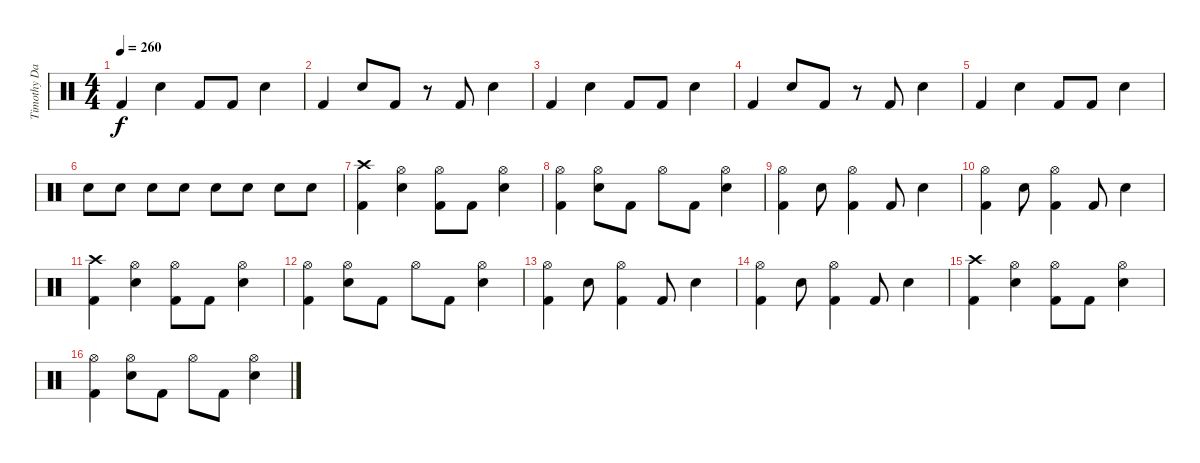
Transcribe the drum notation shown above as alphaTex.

\track ("Timothy David Bollinger" "Timothy Da") {instrument percussion}
\staff {score}
\articulation defaults
\ts (4 4)
\tempo 260
\clef neutral
\ks c "Kick (hit) 2".4{dy f} "Electric Snare (hit)".4 "Kick (hit) 2".8 "Kick (hit) 2".8 "Electric Snare (hit)".4
|
"Kick (hit) 2".4 "Electric Snare (hit)".8 "Kick (hit) 2".8 r.8 "Kick (hit) 2".8 "Electric Snare (hit)".4 |
"Kick (hit) 2".4 "Electric Snare (hit)".4 "Kick (hit) 2".8 "Kick (hit) 2".8 "Electric Snare (hit)".4 |
"Kick (hit) 2".4 "Electric Snare (hit)".8 "Kick (hit) 2".8 r.8 "Kick (hit) 2".8 "Electric Snare (hit)".4 |
"Kick (hit) 2".4 "Electric Snare (hit)".4 "Kick (hit) 2".8 "Kick (hit) 2".8 "Electric Snare (hit)".4 |
"Electric Snare (hit)".8 "Electric Snare (hit)".8 "Electric Snare (hit)".8 "Electric Snare (hit)".8 "Electric Snare (hit)".8 "Electric Snare (hit)".8 "Electric Snare (hit)".8 "Electric Snare (hit)".8 |
("Crash high (hit)" "Kick (hit) 2").4 ("Hi-Hat (open)" "Electric Snare (hit)").4 ("Hi-Hat (open)" "Kick (hit) 2").8 "Kick (hit) 2".8 ("Hi-Hat (open)" "Electric Snare (hit)").4 |
("Hi-Hat (open)" "Kick (hit) 2").4 ("Hi-Hat (open)" "Electric Snare (hit)").8 "Kick (hit) 2".8 "Hi-Hat (open)".8 "Kick (hit) 2".8 ("Hi-Hat (open)" "Electric Snare (hit)").4 |
("Hi-Hat (open)" "Kick (hit) 2").4 "Electric Snare (hit)".8 ("Hi-Hat (open)" "Kick (hit) 2").4 "Kick (hit) 2".8 "Electric Snare (hit)".4 |
("Hi-Hat (open)" "Kick (hit) 2").4 "Electric Snare (hit)".8 ("Hi-Hat (open)" "Kick (hit) 2").4 "Kick (hit) 2".8 "Electric Snare (hit)".4 |
("Crash high (hit)" "Kick (hit) 2").4 ("Hi-Hat (open)" "Electric Snare (hit)").4 ("Hi-Hat (open)" "Kick (hit) 2").8 "Kick (hit) 2".8 ("Hi-Hat (open)" "Electric Snare (hit)").4 |
("Hi-Hat (open)" "Kick (hit) 2").4 ("Hi-Hat (open)" "Electric Snare (hit)").8 "Kick (hit) 2".8 "Hi-Hat (open)".8 "Kick (hit) 2".8 ("Hi-Hat (open)" "Electric Snare (hit)").4 |
("Hi-Hat (open)" "Kick (hit) 2").4 "Electric Snare (hit)".8 ("Hi-Hat (open)" "Kick (hit) 2").4 "Kick (hit) 2".8 "Electric Snare (hit)".4 |
("Hi-Hat (open)" "Kick (hit) 2").4 "Electric Snare (hit)".8 ("Hi-Hat (open)" "Kick (hit) 2").4 "Kick (hit) 2".8 "Electric Snare (hit)".4 |
("Crash high (hit)" "Kick (hit) 2").4 ("Hi-Hat (open)" "Electric Snare (hit)").4 ("Hi-Hat (open)" "Kick (hit) 2").8 "Kick (hit) 2".8 ("Hi-Hat (open)" "Electric Snare (hit)").4 |
("Hi-Hat (open)" "Kick (hit) 2").4 ("Hi-Hat (open)" "Electric Snare (hit)").8 "Kick (hit) 2".8 "Hi-Hat (open)".8 "Kick (hit) 2".8 ("Hi-Hat (open)" "Electric Snare (hit)").4
